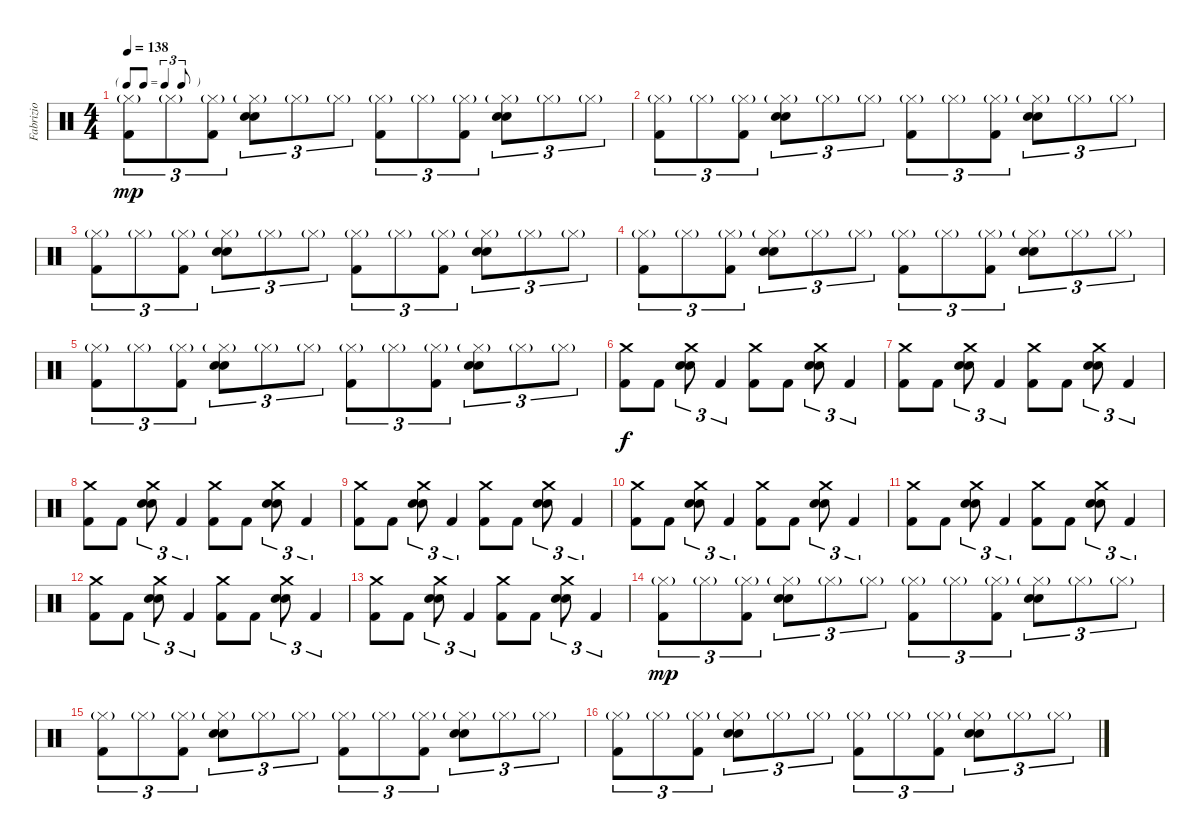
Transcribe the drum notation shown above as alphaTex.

\track ("Fabrizio" "Fabrizio") {instrument percussion}
\staff {score}
\articulation defaults
\ts (4 4)
\tf triplet8th
\tempo 138
\clef neutral
\ks c
("Hi-Hat (closed)"{g} "Kick (hit) 2").8{tu (3 2) dy mp} "Hi-Hat (closed)"{g}.8{tu (3 2)} ("Hi-Hat (closed)"{g} "Kick (hit) 2").8{tu (3 2)} ("Hi-Hat (closed)"{g} "Electric Snare (hit)" "Snare (hit) 2").8{tu (3 2)} "Hi-Hat (closed)"{g}.8{tu (3 2)} "Hi-Hat (closed)"{g}.8{tu (3 2)} ("Hi-Hat (closed)"{g} "Kick (hit) 2").8{tu (3 2)} "Hi-Hat (closed)"{g}.8{tu (3 2)} ("Hi-Hat (closed)"{g} "Kick (hit) 2").8{tu (3 2)} ("Hi-Hat (closed)"{g} "Electric Snare (hit)" "Snare (hit) 2").8{tu (3 2)} "Hi-Hat (closed)"{g}.8{tu (3 2)} "Hi-Hat (closed)"{g}.8{tu (3 2)} |
("Hi-Hat (closed)"{g} "Kick (hit) 2").8{tu (3 2)} "Hi-Hat (closed)"{g}.8{tu (3 2)} ("Hi-Hat (closed)"{g} "Kick (hit) 2").8{tu (3 2)} ("Hi-Hat (closed)"{g} "Electric Snare (hit)" "Snare (hit) 2").8{tu (3 2)} "Hi-Hat (closed)"{g}.8{tu (3 2)} "Hi-Hat (closed)"{g}.8{tu (3 2)} ("Hi-Hat (closed)"{g} "Kick (hit) 2").8{tu (3 2)} "Hi-Hat (closed)"{g}.8{tu (3 2)} ("Hi-Hat (closed)"{g} "Kick (hit) 2").8{tu (3 2)} ("Hi-Hat (closed)"{g} "Electric Snare (hit)" "Snare (hit) 2").8{tu (3 2)} "Hi-Hat (closed)"{g}.8{tu (3 2)} "Hi-Hat (closed)"{g}.8{tu (3 2)} |
("Hi-Hat (closed)"{g} "Kick (hit) 2").8{tu (3 2)} "Hi-Hat (closed)"{g}.8{tu (3 2)} ("Hi-Hat (closed)"{g} "Kick (hit) 2").8{tu (3 2)} ("Hi-Hat (closed)"{g} "Electric Snare (hit)" "Snare (hit) 2").8{tu (3 2)} "Hi-Hat (closed)"{g}.8{tu (3 2)} "Hi-Hat (closed)"{g}.8{tu (3 2)} ("Hi-Hat (closed)"{g} "Kick (hit) 2").8{tu (3 2)} "Hi-Hat (closed)"{g}.8{tu (3 2)} ("Hi-Hat (closed)"{g} "Kick (hit) 2").8{tu (3 2)} ("Hi-Hat (closed)"{g} "Electric Snare (hit)" "Snare (hit) 2").8{tu (3 2)} "Hi-Hat (closed)"{g}.8{tu (3 2)} "Hi-Hat (closed)"{g}.8{tu (3 2)} |
("Hi-Hat (closed)"{g} "Kick (hit) 2").8{tu (3 2)} "Hi-Hat (closed)"{g}.8{tu (3 2)} ("Hi-Hat (closed)"{g} "Kick (hit) 2").8{tu (3 2)} ("Hi-Hat (closed)"{g} "Electric Snare (hit)" "Snare (hit) 2").8{tu (3 2)} "Hi-Hat (closed)"{g}.8{tu (3 2)} "Hi-Hat (closed)"{g}.8{tu (3 2)} ("Hi-Hat (closed)"{g} "Kick (hit) 2").8{tu (3 2)} "Hi-Hat (closed)"{g}.8{tu (3 2)} ("Hi-Hat (closed)"{g} "Kick (hit) 2").8{tu (3 2)} ("Hi-Hat (closed)"{g} "Electric Snare (hit)" "Snare (hit) 2").8{tu (3 2)} "Hi-Hat (closed)"{g}.8{tu (3 2)} "Hi-Hat (closed)"{g}.8{tu (3 2)} |
("Hi-Hat (closed)"{g} "Kick (hit) 2").8{tu (3 2)} "Hi-Hat (closed)"{g}.8{tu (3 2)} ("Hi-Hat (closed)"{g} "Kick (hit) 2").8{tu (3 2)} ("Hi-Hat (closed)"{g} "Electric Snare (hit)" "Snare (hit) 2").8{tu (3 2)} "Hi-Hat (closed)"{g}.8{tu (3 2)} "Hi-Hat (closed)"{g}.8{tu (3 2)} ("Hi-Hat (closed)"{g} "Kick (hit) 2").8{tu (3 2)} "Hi-Hat (closed)"{g}.8{tu (3 2)} ("Hi-Hat (closed)"{g} "Kick (hit) 2").8{tu (3 2)} ("Hi-Hat (closed)"{g} "Electric Snare (hit)" "Snare (hit) 2").8{tu (3 2)} "Hi-Hat (closed)"{g}.8{tu (3 2)} "Hi-Hat (closed)"{g}.8{tu (3 2)} |
("Crash medium (hit)" "Kick (hit) 2").8{dy f} "Kick (hit) 2".8 ("Crash medium (hit)" "Electric Snare (hit)" "Snare (hit) 2").8{tu (3 2)} "Kick (hit) 2".4{tu (3 2)} ("Crash medium (hit)" "Kick (hit) 2").8 "Kick (hit) 2".8 ("Crash medium (hit)" "Electric Snare (hit)" "Snare (hit) 2").8{tu (3 2)} "Kick (hit) 2".4{tu (3 2)} |
("Crash medium (hit)" "Kick (hit) 2").8 "Kick (hit) 2".8 ("Crash medium (hit)" "Electric Snare (hit)" "Snare (hit) 2").8{tu (3 2)} "Kick (hit) 2".4{tu (3 2)} ("Crash medium (hit)" "Kick (hit) 2").8 "Kick (hit) 2".8 ("Crash medium (hit)" "Electric Snare (hit)" "Snare (hit) 2").8{tu (3 2)} "Kick (hit) 2".4{tu (3 2)} |
("Crash medium (hit)" "Kick (hit) 2").8 "Kick (hit) 2".8 ("Crash medium (hit)" "Electric Snare (hit)" "Snare (hit) 2").8{tu (3 2)} "Kick (hit) 2".4{tu (3 2)} ("Crash medium (hit)" "Kick (hit) 2").8 "Kick (hit) 2".8 ("Crash medium (hit)" "Electric Snare (hit)" "Snare (hit) 2").8{tu (3 2)} "Kick (hit) 2".4{tu (3 2)} |
("Crash medium (hit)" "Kick (hit) 2").8 "Kick (hit) 2".8 ("Crash medium (hit)" "Electric Snare (hit)" "Snare (hit) 2").8{tu (3 2)} "Kick (hit) 2".4{tu (3 2)} ("Crash medium (hit)" "Kick (hit) 2").8 "Kick (hit) 2".8 ("Crash medium (hit)" "Electric Snare (hit)" "Snare (hit) 2").8{tu (3 2)} "Kick (hit) 2".4{tu (3 2)} |
("Crash medium (hit)" "Kick (hit) 2").8 "Kick (hit) 2".8 ("Crash medium (hit)" "Electric Snare (hit)" "Snare (hit) 2").8{tu (3 2)} "Kick (hit) 2".4{tu (3 2)} ("Crash medium (hit)" "Kick (hit) 2").8 "Kick (hit) 2".8 ("Crash medium (hit)" "Electric Snare (hit)" "Snare (hit) 2").8{tu (3 2)} "Kick (hit) 2".4{tu (3 2)} |
("Crash medium (hit)" "Kick (hit) 2").8 "Kick (hit) 2".8 ("Crash medium (hit)" "Electric Snare (hit)" "Snare (hit) 2").8{tu (3 2)} "Kick (hit) 2".4{tu (3 2)} ("Crash medium (hit)" "Kick (hit) 2").8 "Kick (hit) 2".8 ("Crash medium (hit)" "Electric Snare (hit)" "Snare (hit) 2").8{tu (3 2)} "Kick (hit) 2".4{tu (3 2)} |
("Crash medium (hit)" "Kick (hit) 2").8 "Kick (hit) 2".8 ("Crash medium (hit)" "Electric Snare (hit)" "Snare (hit) 2").8{tu (3 2)} "Kick (hit) 2".4{tu (3 2)} ("Crash medium (hit)" "Kick (hit) 2").8 "Kick (hit) 2".8 ("Crash medium (hit)" "Electric Snare (hit)" "Snare (hit) 2").8{tu (3 2)} "Kick (hit) 2".4{tu (3 2)} |
("Crash medium (hit)" "Kick (hit) 2").8 "Kick (hit) 2".8 ("Crash medium (hit)" "Electric Snare (hit)" "Snare (hit) 2").8{tu (3 2)} "Kick (hit) 2".4{tu (3 2)} ("Crash medium (hit)" "Kick (hit) 2").8 "Kick (hit) 2".8 ("Crash medium (hit)" "Electric Snare (hit)" "Snare (hit) 2").8{tu (3 2)} "Kick (hit) 2".4{tu (3 2)} |
("Hi-Hat (closed)"{g} "Kick (hit) 2").8{tu (3 2) dy mp} "Hi-Hat (closed)"{g}.8{tu (3 2)} ("Hi-Hat (closed)"{g} "Kick (hit) 2").8{tu (3 2)} ("Hi-Hat (closed)"{g} "Electric Snare (hit)" "Snare (hit) 2").8{tu (3 2)} "Hi-Hat (closed)"{g}.8{tu (3 2)} "Hi-Hat (closed)"{g}.8{tu (3 2)} ("Hi-Hat (closed)"{g} "Kick (hit) 2").8{tu (3 2)} "Hi-Hat (closed)"{g}.8{tu (3 2)} ("Hi-Hat (closed)"{g} "Kick (hit) 2").8{tu (3 2)} ("Hi-Hat (closed)"{g} "Electric Snare (hit)" "Snare (hit) 2").8{tu (3 2)} "Hi-Hat (closed)"{g}.8{tu (3 2)} "Hi-Hat (closed)"{g}.8{tu (3 2)} |
("Hi-Hat (closed)"{g} "Kick (hit) 2").8{tu (3 2)} "Hi-Hat (closed)"{g}.8{tu (3 2)} ("Hi-Hat (closed)"{g} "Kick (hit) 2").8{tu (3 2)} ("Hi-Hat (closed)"{g} "Electric Snare (hit)" "Snare (hit) 2").8{tu (3 2)} "Hi-Hat (closed)"{g}.8{tu (3 2)} "Hi-Hat (closed)"{g}.8{tu (3 2)} ("Hi-Hat (closed)"{g} "Kick (hit) 2").8{tu (3 2)} "Hi-Hat (closed)"{g}.8{tu (3 2)} ("Hi-Hat (closed)"{g} "Kick (hit) 2").8{tu (3 2)} ("Hi-Hat (closed)"{g} "Electric Snare (hit)" "Snare (hit) 2").8{tu (3 2)} "Hi-Hat (closed)"{g}.8{tu (3 2)} "Hi-Hat (closed)"{g}.8{tu (3 2)} |
("Hi-Hat (closed)"{g} "Kick (hit) 2").8{tu (3 2)} "Hi-Hat (closed)"{g}.8{tu (3 2)} ("Hi-Hat (closed)"{g} "Kick (hit) 2").8{tu (3 2)} ("Hi-Hat (closed)"{g} "Electric Snare (hit)" "Snare (hit) 2").8{tu (3 2)} "Hi-Hat (closed)"{g}.8{tu (3 2)} "Hi-Hat (closed)"{g}.8{tu (3 2)} ("Hi-Hat (closed)"{g} "Kick (hit) 2").8{tu (3 2)} "Hi-Hat (closed)"{g}.8{tu (3 2)} ("Hi-Hat (closed)"{g} "Kick (hit) 2").8{tu (3 2)} ("Hi-Hat (closed)"{g} "Electric Snare (hit)" "Snare (hit) 2").8{tu (3 2)} "Hi-Hat (closed)"{g}.8{tu (3 2)} "Hi-Hat (closed)"{g}.8{tu (3 2)}
